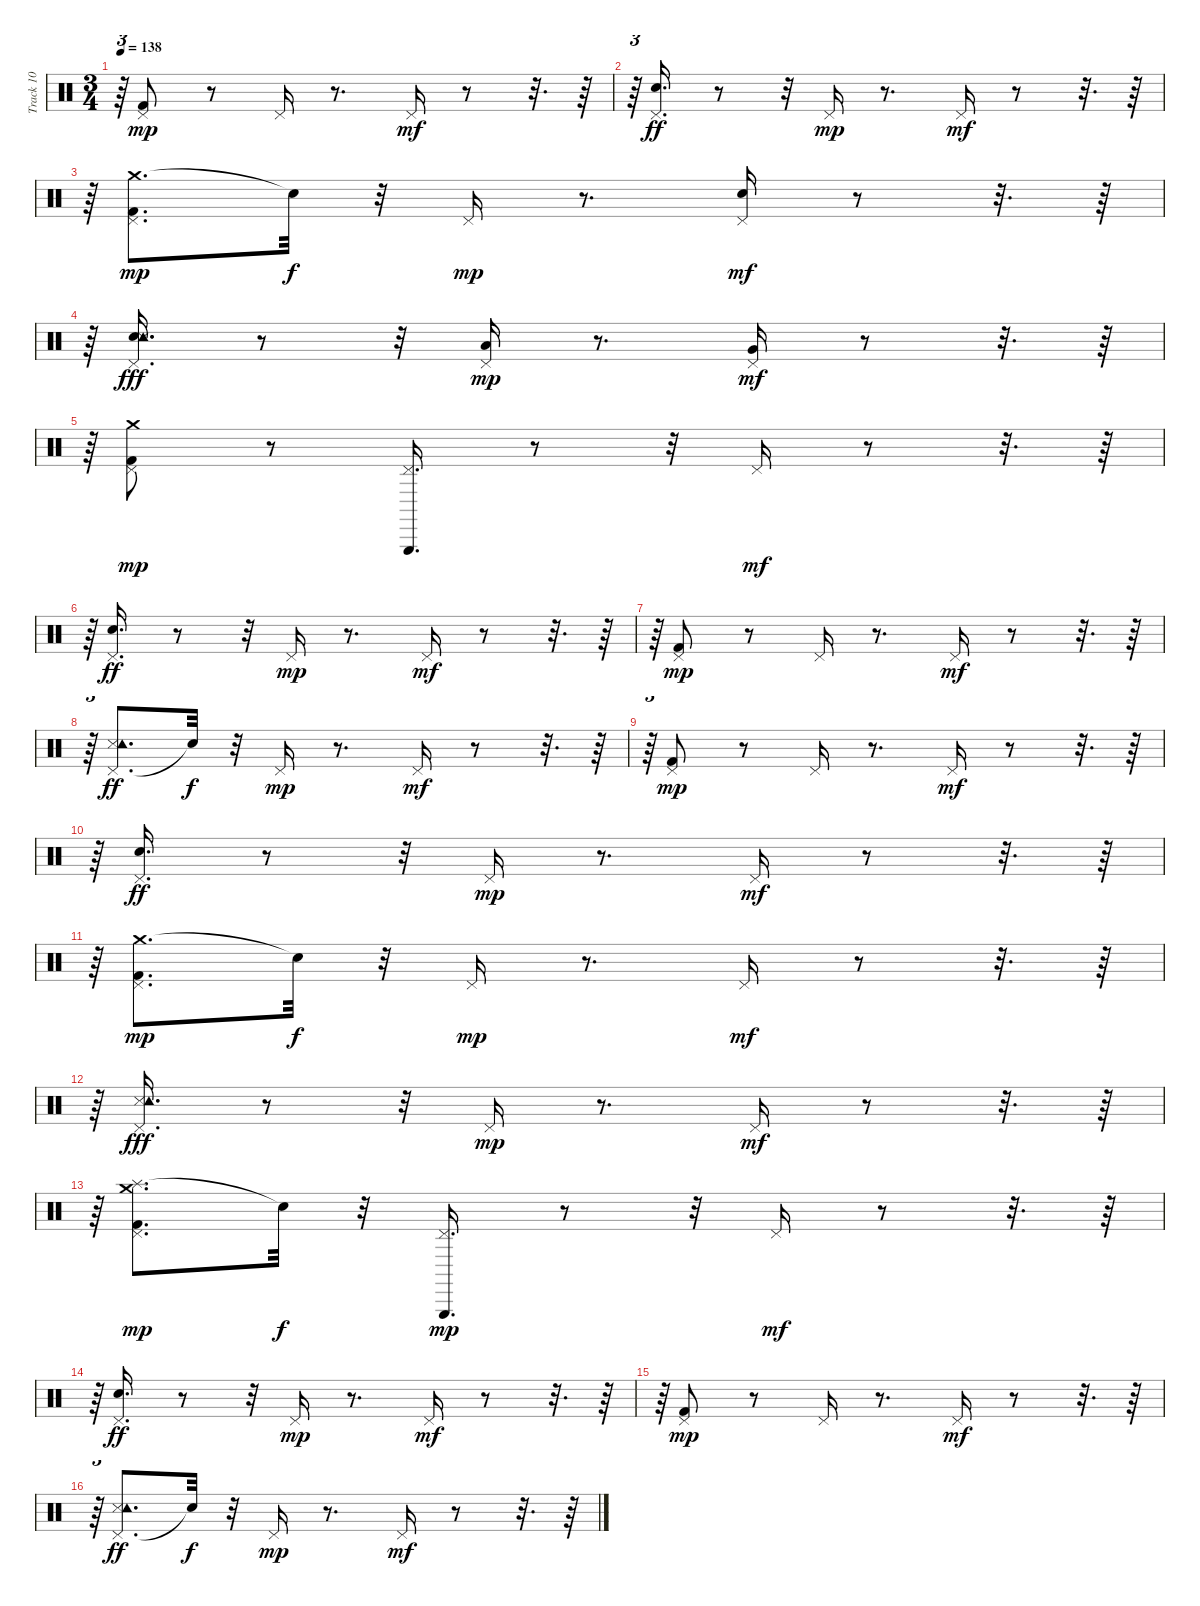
\track ("Track 10" "Track 10") {instrument percussion}
\staff {score}
\articulation defaults
\ts (3 4)
\tempo 138
\clef neutral
\ks c
r.64{tu (3 2) dy mf} ("Pedal Hi-Hat (hit)" "Kick (hit) 2").8{dy mp} r.8 "Pedal Hi-Hat (hit)".16 r.8{d} "Pedal Hi-Hat (hit)".16{dy mf} r.8 r.32{d} r.64 |
r.64{tu (3 2)} ("Pedal Hi-Hat (hit)" "Electric Snare (hit)").16{d dy ff} r.8 r.32 "Pedal Hi-Hat (hit)".16{dy mp} r.8{d} "Pedal Hi-Hat (hit)".16{dy mf} r.8 r.32{d} r.64 |
r.64{tu (3 2)} ("Crash medium (hit)" "Pedal Hi-Hat (hit)" "Kick (hit) 2").8{d dy mp} "Snare (hit)"{t}.32{dy f} r.32 "Pedal Hi-Hat (hit)".16{dy mp} r.8{d} ("Electric Snare (hit)" "Pedal Hi-Hat (hit)").16{dy mf} r.8 r.32{d} r.64 |
r.64{tu (3 2)} ("Electric Snare (hit)" "Pedal Hi-Hat (hit)" "Snare (side stick) 3" "Tambourine (hit)").16{d dy fff} r.8 r.32 ("Low Tom (hit)" "Pedal Hi-Hat (hit)").16{dy mp} r.8{d} ("Very Low Tom (hit)" "Pedal Hi-Hat (hit)").16{dy mf} r.8 r.32{d} r.64 |
r.64{tu (3 2)} ("Pedal Hi-Hat (hit)" "Kick (hit) 2" "Crash medium (hit)").8{dy mp} r.8 ("Pedal Hi-Hat (hit)" "Triangle (hit)").16{d} r.8 r.32 "Pedal Hi-Hat (hit)".16{dy mf} r.8 r.32{d} r.64 |
r.64{tu (3 2)} ("Pedal Hi-Hat (hit)" "Electric Snare (hit)").16{d dy ff} r.8 r.32 "Pedal Hi-Hat (hit)".16{dy mp} r.8{d} "Pedal Hi-Hat (hit)".16{dy mf} r.8 r.32{d} r.64 |
r.64{tu (3 2)} ("Pedal Hi-Hat (hit)" "Kick (hit) 2").8{dy mp} r.8 "Pedal Hi-Hat (hit)".16 r.8{d} "Pedal Hi-Hat (hit)".16{dy mf} r.8 r.32{d} r.64 |
r.64{tu (3 2)} ("Pedal Hi-Hat (hit)" "Snare (side stick) 3" "Tambourine (hit)").8{d dy ff} "Snare (hit)"{t}.32{dy f} r.32 "Pedal Hi-Hat (hit)".16{dy mp} r.8{d} "Pedal Hi-Hat (hit)".16{dy mf} r.8 r.32{d} r.64 |
r.64{tu (3 2)} ("Pedal Hi-Hat (hit)" "Kick (hit) 2").8{dy mp} r.8 "Pedal Hi-Hat (hit)".16 r.8{d} "Pedal Hi-Hat (hit)".16{dy mf} r.8 r.32{d} r.64 |
r.64{tu (3 2)} ("Pedal Hi-Hat (hit)" "Electric Snare (hit)").16{d dy ff} r.8 r.32 "Pedal Hi-Hat (hit)".16{dy mp} r.8{d} "Pedal Hi-Hat (hit)".16{dy mf} r.8 r.32{d} r.64 |
r.64{tu (3 2)} ("Crash medium (hit)" "Pedal Hi-Hat (hit)" "Kick (hit) 2").8{d dy mp} "Snare (hit)"{t}.32{dy f} r.32 "Pedal Hi-Hat (hit)".16{dy mp} r.8{d} "Pedal Hi-Hat (hit)".16{dy mf} r.8 r.32{d} r.64 |
r.64{tu (3 2)} ("Pedal Hi-Hat (hit)" "Snare (side stick) 3" "Tambourine (hit)").16{d dy fff} r.8 r.32 "Pedal Hi-Hat (hit)".16{dy mp} r.8{d} "Pedal Hi-Hat (hit)".16{dy mf} r.8 r.32{d} r.64 |
r.64{tu (3 2)} ("Splash (hit)" "Pedal Hi-Hat (hit)" "Kick (hit) 2" "Crash medium (hit)").8{d dy mp} "Snare (hit)"{t}.32{dy f} r.32 ("Pedal Hi-Hat (hit)" "Triangle (hit)").16{d dy mp} r.8 r.32 "Pedal Hi-Hat (hit)".16{dy mf} r.8 r.32{d} r.64 |
r.64{tu (3 2)} ("Pedal Hi-Hat (hit)" "Electric Snare (hit)").16{d dy ff} r.8 r.32 "Pedal Hi-Hat (hit)".16{dy mp} r.8{d} "Pedal Hi-Hat (hit)".16{dy mf} r.8 r.32{d} r.64 |
r.64{tu (3 2)} ("Pedal Hi-Hat (hit)" "Kick (hit) 2").8{dy mp} r.8 "Pedal Hi-Hat (hit)".16 r.8{d} "Pedal Hi-Hat (hit)".16{dy mf} r.8 r.32{d} r.64 |
r.64{tu (3 2)} ("Pedal Hi-Hat (hit)" "Snare (side stick) 3" "Tambourine (hit)").8{d dy ff} "Snare (hit)"{t}.32{dy f} r.32 "Pedal Hi-Hat (hit)".16{dy mp} r.8{d} "Pedal Hi-Hat (hit)".16{dy mf} r.8 r.32{d} r.64
